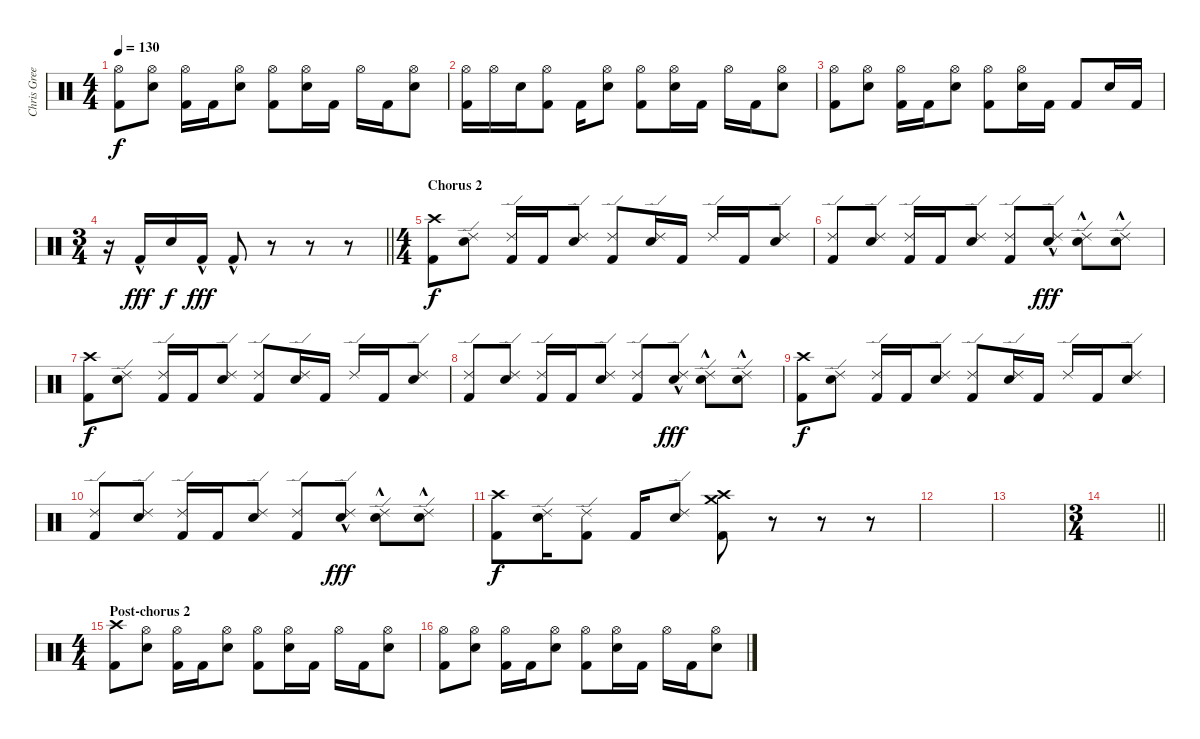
\track ("Chris Greer - Drums" "Chris Gree") {instrument percussion}
\staff {score}
\articulation defaults
\ts (4 4)
\tempo 130
\clef neutral
\ks c
("Hi-Hat (open)" "Kick (hit) 2").8{dy f} ("Hi-Hat (open)" "Electric Snare (hit)").8 ("Hi-Hat (open)" "Kick (hit) 2").16 "Kick (hit) 2".16 ("Hi-Hat (open)" "Electric Snare (hit)").8 ("Hi-Hat (open)" "Kick (hit) 2").8 ("Hi-Hat (open)" "Electric Snare (hit)").16 "Kick (hit) 2".16 "Hi-Hat (open)".16 "Kick (hit) 2".16 ("Hi-Hat (open)" "Electric Snare (hit)").8 |
("Hi-Hat (open)" "Kick (hit) 2").16 "Hi-Hat (open)".16 "Electric Snare (hit)".16 ("Hi-Hat (open)" "Kick (hit) 2").8 "Kick (hit) 2".16 ("Hi-Hat (open)" "Electric Snare (hit)").8 ("Hi-Hat (open)" "Kick (hit) 2").8 ("Hi-Hat (open)" "Electric Snare (hit)").16 "Kick (hit) 2".16 "Hi-Hat (open)".16 "Kick (hit) 2".16 ("Hi-Hat (open)" "Electric Snare (hit)").8 |
("Hi-Hat (open)" "Kick (hit) 2").8 ("Hi-Hat (open)" "Electric Snare (hit)").8 ("Hi-Hat (open)" "Kick (hit) 2").16 "Kick (hit) 2".16 ("Hi-Hat (open)" "Electric Snare (hit)").8 ("Hi-Hat (open)" "Kick (hit) 2").8 ("Hi-Hat (open)" "Electric Snare (hit)").16 "Kick (hit) 2".16 "Kick (hit) 2".8 "Electric Snare (hit)".16 "Kick (hit) 2".16 |
\ts (3 4)
\barLineRight lightlight
r.16 "Kick (hit) 2"{hac}.16{dy fff} "Electric Snare (hit)".16{dy f} "Kick (hit) 2"{hac}.16{dy fff} "Kick (hit) 2"{hac}.8 r.8 r.8 r.8 |
\ts (4 4)
\section ("" "Chorus 2")
("Crash high (hit)" "Kick (hit) 2").8{dy f} ("Ride (edge) 2" "Electric Snare (hit)").8 ("Ride (edge) 2" "Kick (hit) 2").16 "Kick (hit) 2".16 ("Ride (edge) 2" "Electric Snare (hit)").8 ("Ride (edge) 2" "Kick (hit) 2").8 ("Ride (edge) 2" "Electric Snare (hit)").16 "Kick (hit) 2".16 "Ride (edge) 2".16 "Kick (hit) 2".16 ("Ride (edge) 2" "Electric Snare (hit)").8 |
("Ride (edge) 2" "Kick (hit) 2").8 ("Ride (edge) 2" "Electric Snare (hit)").8 ("Ride (edge) 2" "Kick (hit) 2").16 "Kick (hit) 2".16 ("Ride (edge) 2" "Electric Snare (hit)").8 ("Ride (edge) 2" "Kick (hit) 2").8 ("Ride (edge) 2" "Electric Snare (hit)"{hac}).8{dy fff} ("Ride (edge) 2" "Electric Snare (hit)"{hac}).8 ("Ride (edge) 2" "Electric Snare (hit)"{hac}).8 |
("Crash high (hit)" "Kick (hit) 2").8{dy f} ("Ride (edge) 2" "Electric Snare (hit)").8 ("Ride (edge) 2" "Kick (hit) 2").16 "Kick (hit) 2".16 ("Ride (edge) 2" "Electric Snare (hit)").8 ("Ride (edge) 2" "Kick (hit) 2").8 ("Ride (edge) 2" "Electric Snare (hit)").16 "Kick (hit) 2".16 "Ride (edge) 2".16 "Kick (hit) 2".16 ("Ride (edge) 2" "Electric Snare (hit)").8 |
("Ride (edge) 2" "Kick (hit) 2").8 ("Ride (edge) 2" "Electric Snare (hit)").8 ("Ride (edge) 2" "Kick (hit) 2").16 "Kick (hit) 2".16 ("Ride (edge) 2" "Electric Snare (hit)").8 ("Ride (edge) 2" "Kick (hit) 2").8 ("Ride (edge) 2" "Electric Snare (hit)"{hac}).8{dy fff} ("Ride (edge) 2" "Electric Snare (hit)"{hac}).8 ("Ride (edge) 2" "Electric Snare (hit)"{hac}).8 |
("Crash high (hit)" "Kick (hit) 2").8{dy f} ("Ride (edge) 2" "Electric Snare (hit)").8 ("Ride (edge) 2" "Kick (hit) 2").16 "Kick (hit) 2".16 ("Ride (edge) 2" "Electric Snare (hit)").8 ("Ride (edge) 2" "Kick (hit) 2").8 ("Ride (edge) 2" "Electric Snare (hit)").16 "Kick (hit) 2".16 "Ride (edge) 2".16 "Kick (hit) 2".16 ("Ride (edge) 2" "Electric Snare (hit)").8 |
("Ride (edge) 2" "Kick (hit) 2").8 ("Ride (edge) 2" "Electric Snare (hit)").8 ("Ride (edge) 2" "Kick (hit) 2").16 "Kick (hit) 2".16 ("Ride (edge) 2" "Electric Snare (hit)").8 ("Ride (edge) 2" "Kick (hit) 2").8 ("Ride (edge) 2" "Electric Snare (hit)"{hac}).8{dy fff} ("Ride (edge) 2" "Electric Snare (hit)"{hac}).8 ("Ride (edge) 2" "Electric Snare (hit)"{hac}).8 |
("Crash high (hit)" "Kick (hit) 2").8{dy f} ("Ride (edge) 2" "Electric Snare (hit)").16 ("Ride (edge) 2" "Kick (hit) 2").8 "Kick (hit) 2".16 ("Ride (edge) 2" "Electric Snare (hit)").8 ("Crash high (hit)" "Crash medium (hit)" "Kick (hit) 2").8 r.8 r.8 r.8 |
|
|
\ts (3 4)
\barLineRight lightlight
|
\ts (4 4)
\section ("" "Post-chorus 2")
("Crash high (hit)" "Kick (hit) 2").8 ("Hi-Hat (open)" "Electric Snare (hit)").8 ("Hi-Hat (open)" "Kick (hit) 2").16 "Kick (hit) 2".16 ("Hi-Hat (open)" "Electric Snare (hit)").8 ("Hi-Hat (open)" "Kick (hit) 2").8 ("Hi-Hat (open)" "Electric Snare (hit)").16 "Kick (hit) 2".16 "Hi-Hat (open)".16 "Kick (hit) 2".16 ("Hi-Hat (open)" "Electric Snare (hit)").8 |
("Hi-Hat (open)" "Kick (hit) 2").8 ("Hi-Hat (open)" "Electric Snare (hit)").8 ("Hi-Hat (open)" "Kick (hit) 2").16 "Kick (hit) 2".16 ("Hi-Hat (open)" "Electric Snare (hit)").8 ("Hi-Hat (open)" "Kick (hit) 2").8 ("Hi-Hat (open)" "Electric Snare (hit)").16 "Kick (hit) 2".16 "Hi-Hat (open)".16 "Kick (hit) 2".16 ("Hi-Hat (open)" "Electric Snare (hit)").8
